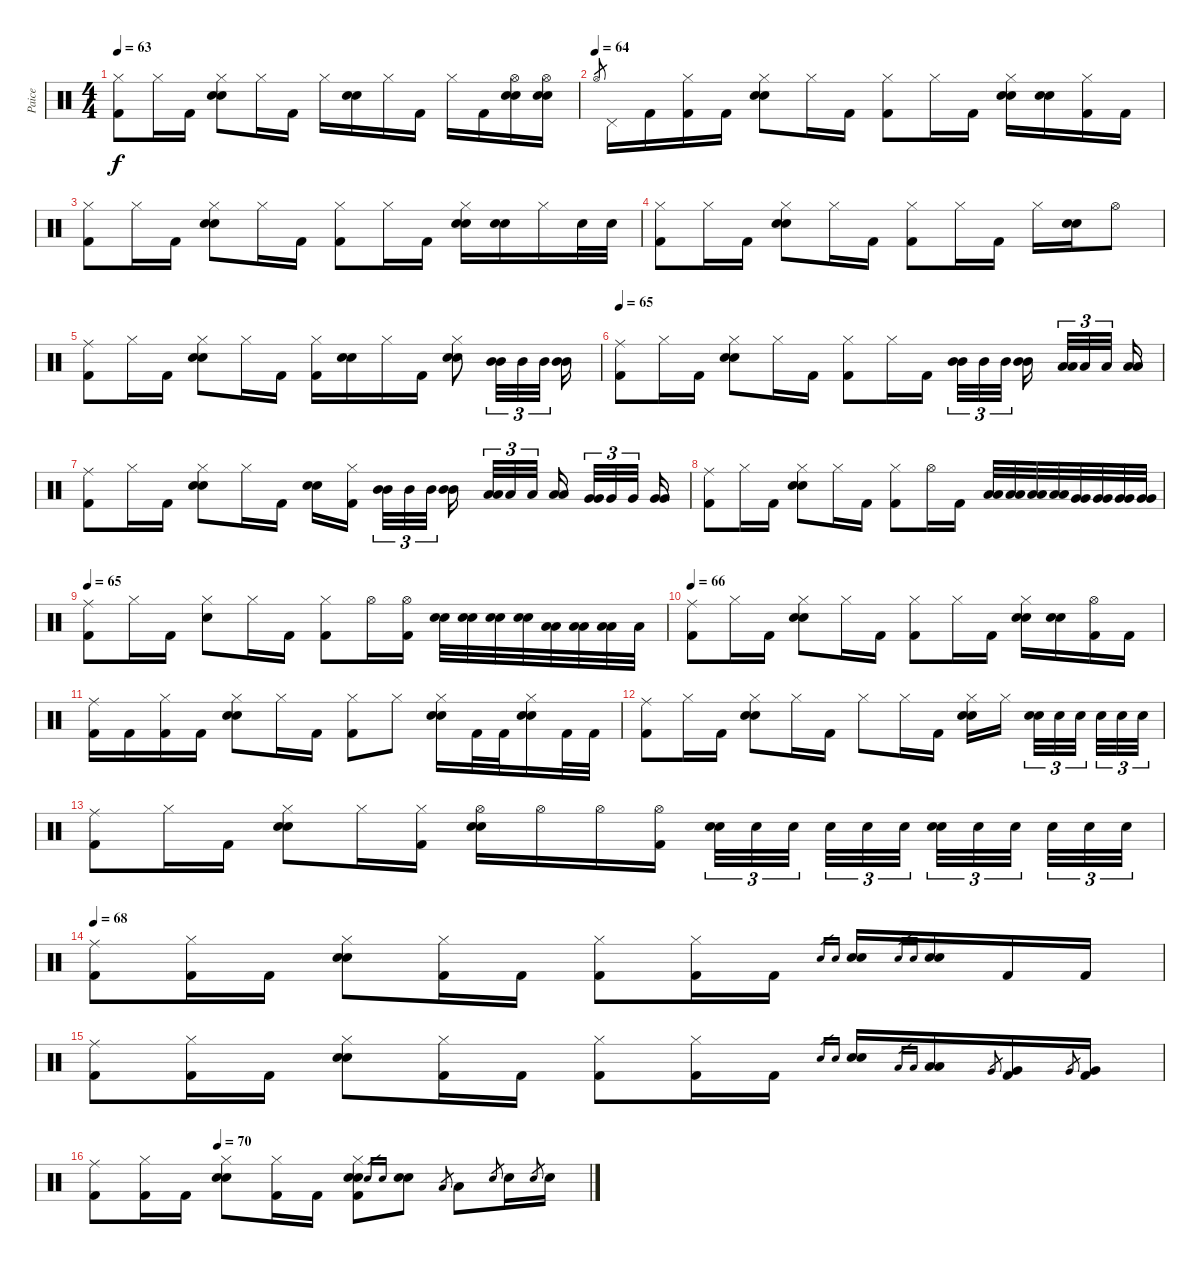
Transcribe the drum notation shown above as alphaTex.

\track ("Paice" "Paice") {instrument percussion}
\staff {score}
\articulation defaults
\ts (4 4)
\tempo 63
\clef neutral
\ks c
("Hi-Hat (closed)" "Kick (hit) 2").8{dy f} "Hi-Hat (closed)".16 "Kick (hit) 2".16 ("Hi-Hat (closed)" "Electric Snare (hit)" "Electric Snare (hit)").8 "Hi-Hat (closed)".16 "Kick (hit) 2".16 "Hi-Hat (closed)".16 ("Electric Snare (hit)" "Electric Snare (hit)").16 "Hi-Hat (closed)".16 "Kick (hit) 2".16 "Hi-Hat (closed)".16 "Kick (hit) 2".16 ("Hi-Hat (open)" "Electric Snare (hit)" "Electric Snare (hit)").16 ("Hi-Hat (open)" "Electric Snare (hit)" "Electric Snare (hit)").16 |
\tempo (64)
"Hi-Hat (open)".8{gr} "Pedal Hi-Hat (hit)".16 "Kick (hit) 2".16 ("Hi-Hat (closed)" "Kick (hit) 2").16 "Kick (hit) 2".16 ("Hi-Hat (closed)" "Electric Snare (hit)" "Electric Snare (hit)").8 "Hi-Hat (closed)".16 "Kick (hit) 2".16 ("Hi-Hat (closed)" "Kick (hit) 2").8 "Hi-Hat (closed)".16 "Kick (hit) 2".16 ("Hi-Hat (closed)" "Electric Snare (hit)" "Electric Snare (hit)").16 ("Electric Snare (hit)" "Electric Snare (hit)").16 ("Hi-Hat (closed)" "Kick (hit) 2").16 "Kick (hit) 2".16 |
("Hi-Hat (closed)" "Kick (hit) 2").8 "Hi-Hat (closed)".16 "Kick (hit) 2".16 ("Hi-Hat (closed)" "Electric Snare (hit)" "Electric Snare (hit)").8 "Hi-Hat (closed)".16 "Kick (hit) 2".16 ("Hi-Hat (closed)" "Kick (hit) 2").8 "Hi-Hat (closed)".16 "Kick (hit) 2".16 ("Hi-Hat (closed)" "Electric Snare (hit)" "Electric Snare (hit)").16 ("Electric Snare (hit)" "Electric Snare (hit)").16 "Hi-Hat (closed)".16 "Electric Snare (hit)".32 "Electric Snare (hit)".32 |
("Hi-Hat (closed)" "Kick (hit) 2").8 "Hi-Hat (closed)".16 "Kick (hit) 2".16 ("Hi-Hat (closed)" "Electric Snare (hit)" "Electric Snare (hit)").8 "Hi-Hat (closed)".16 "Kick (hit) 2".16 ("Hi-Hat (closed)" "Kick (hit) 2").8 "Hi-Hat (closed)".16 "Kick (hit) 2".16 "Hi-Hat (closed)".16 ("Electric Snare (hit)" "Electric Snare (hit)").16 "Hi-Hat (open)".8 |
("Ride (middle)" "Kick (hit) 2").8 "Hi-Hat (closed)".16 "Kick (hit) 2".16 ("Hi-Hat (closed)" "Electric Snare (hit)" "Electric Snare (hit)").8 "Hi-Hat (closed)".16 "Kick (hit) 2".16 ("Hi-Hat (closed)" "Kick (hit) 2").16 ("Electric Snare (hit)" "Electric Snare (hit)").16 "Hi-Hat (closed)".16 "Kick (hit) 2".16 ("Hi-Hat (closed)" "Electric Snare (hit)" "Electric Snare (hit)").8 ("Mid Tom (hit)" "Mid Tom (hit)").32{tu (3 2)} "Mid Tom (hit)".32{tu (3 2)} "Mid Tom (hit)".32{tu (3 2) beam splitsecondary} ("Mid Tom (hit)" "Mid Tom (hit)").16 |
\tempo 65
("Ride (middle)" "Kick (hit) 2").8 "Hi-Hat (closed)".16 "Kick (hit) 2".16 ("Hi-Hat (closed)" "Electric Snare (hit)" "Electric Snare (hit)").8 "Hi-Hat (closed)".16 "Kick (hit) 2".16 ("Hi-Hat (closed)" "Kick (hit) 2").8 "Hi-Hat (closed)".16 "Kick (hit) 2".16 ("Mid Tom (hit)" "Mid Tom (hit)").32{tu (3 2)} "Mid Tom (hit)".32{tu (3 2)} "Mid Tom (hit)".32{tu (3 2) beam splitsecondary} ("Mid Tom (hit)" "Mid Tom (hit)").16{beam splitsecondary} ("Low Tom (hit)" "Low Tom (hit)").32{tu (3 2)} "Low Tom (hit)".32{tu (3 2)} "Low Tom (hit)".32{tu (3 2) beam splitsecondary} ("Low Tom (hit)" "Low Tom (hit)").16 |
("Ride (middle)" "Kick (hit) 2").8 "Hi-Hat (closed)".16 "Kick (hit) 2".16 ("Hi-Hat (closed)" "Electric Snare (hit)" "Electric Snare (hit)").8 "Hi-Hat (closed)".16 "Kick (hit) 2".16 ("Electric Snare (hit)" "Electric Snare (hit)").16 ("Hi-Hat (closed)" "Kick (hit) 2").16{beam splitsecondary} ("Mid Tom (hit)" "Mid Tom (hit)").32{tu (3 2)} "Mid Tom (hit)".32{tu (3 2)} "Mid Tom (hit)".32{tu (3 2) beam splitsecondary} ("Mid Tom (hit)" "Mid Tom (hit)").16 ("Low Tom (hit)" "Low Tom (hit)").32{tu (3 2)} "Low Tom (hit)".32{tu (3 2)} "Low Tom (hit)".32{tu (3 2) beam splitsecondary} ("Low Tom (hit)" "Low Tom (hit)").16{beam splitsecondary} ("Very Low Tom (hit)" "Very Low Tom (hit)").32{tu (3 2)} "Very Low Tom (hit)".32{tu (3 2)} "Very Low Tom (hit)".32{tu (3 2) beam splitsecondary} ("Very Low Tom (hit)" "Very Low Tom (hit)").16 |
("Ride (middle)" "Kick (hit) 2").8 "Hi-Hat (closed)".16 "Kick (hit) 2".16 ("Hi-Hat (closed)" "Electric Snare (hit)" "Electric Snare (hit)").8 "Hi-Hat (closed)".16 "Kick (hit) 2".16 ("Hi-Hat (closed)" "Kick (hit) 2").8 "Hi-Hat (open)".16 "Kick (hit) 2".16 ("Low Tom (hit)" "Low Tom (hit)").32 ("Low Tom (hit)" "Low Tom (hit)").32 ("Low Tom (hit)" "Low Tom (hit)").32 ("Low Tom (hit)" "Low Tom (hit)").32 ("Very Low Tom (hit)" "Very Low Tom (hit)").32 ("Very Low Tom (hit)" "Very Low Tom (hit)").32 ("Very Low Tom (hit)" "Very Low Tom (hit)").32 ("Very Low Tom (hit)" "Very Low Tom (hit)").32 |
\tempo 65
("Ride (middle)" "Kick (hit) 2").8 "Hi-Hat (closed)".16 "Kick (hit) 2".16 ("Hi-Hat (closed)" "Snare (hit) 2").8 "Hi-Hat (closed)".16 "Kick (hit) 2".16 ("Hi-Hat (closed)" "Kick (hit) 2").8 "Hi-Hat (open)".16 ("Hi-Hat (open)" "Kick (hit) 2").16 ("Electric Snare (hit)" "Electric Snare (hit)").32 ("Electric Snare (hit)" "Electric Snare (hit)").32 ("Electric Snare (hit)" "Electric Snare (hit)").32 ("Electric Snare (hit)" "Electric Snare (hit)").32 ("Low Tom (hit)" "Low Tom (hit)").32 ("Low Tom (hit)" "Low Tom (hit)").32 ("Low Tom (hit)" "Low Tom (hit)").32 "Low Tom (hit)".32 |
\tempo 66
("Ride (middle)" "Kick (hit) 2").8 "Hi-Hat (closed)".16 "Kick (hit) 2".16 ("Hi-Hat (closed)" "Electric Snare (hit)" "Electric Snare (hit)").8 "Hi-Hat (closed)".16 "Kick (hit) 2".16 ("Hi-Hat (closed)" "Kick (hit) 2").8 "Hi-Hat (closed)".16 "Kick (hit) 2".16 ("Hi-Hat (closed)" "Electric Snare (hit)" "Electric Snare (hit)").16 ("Electric Snare (hit)" "Electric Snare (hit)").16 ("Hi-Hat (open)" "Kick (hit) 2").16 "Kick (hit) 2".16 |
("Ride (middle)" "Kick (hit) 2").16 "Kick (hit) 2".16 ("Hi-Hat (closed)" "Kick (hit) 2").16 "Kick (hit) 2".16 ("Hi-Hat (closed)" "Electric Snare (hit)" "Electric Snare (hit)").8 "Hi-Hat (closed)".16 "Kick (hit) 2".16 ("Hi-Hat (closed)" "Kick (hit) 2").8 "Hi-Hat (closed)".8 ("Hi-Hat (closed)" "Electric Snare (hit)" "Electric Snare (hit)").16 "Kick (hit) 2".32 "Kick (hit) 2".32 ("Hi-Hat (closed)" "Electric Snare (hit)" "Electric Snare (hit)").16 "Kick (hit) 2".32 "Kick (hit) 2".32 |
("Ride (middle)" "Kick (hit) 2").8 "Hi-Hat (closed)".16 "Kick (hit) 2".16 ("Hi-Hat (closed)" "Electric Snare (hit)" "Electric Snare (hit)").8 "Hi-Hat (closed)".16 "Kick (hit) 2".16 "Hi-Hat (closed)".8 "Hi-Hat (closed)".16 "Kick (hit) 2".16 ("Hi-Hat (closed)" "Electric Snare (hit)" "Electric Snare (hit)").16 "Hi-Hat (closed)".16{beam splitsecondary} ("Electric Snare (hit)" "Electric Snare (hit)").32{tu (3 2)} "Electric Snare (hit)".32{tu (3 2)} "Electric Snare (hit)".32{tu (3 2) beam splitsecondary} "Electric Snare (hit)".32{tu (3 2)} "Electric Snare (hit)".32{tu (3 2)} "Electric Snare (hit)".32{tu (3 2)} |
("Ride (middle)" "Kick (hit) 2").8 "Hi-Hat (closed)".16 "Kick (hit) 2".16 ("Hi-Hat (closed)" "Electric Snare (hit)" "Electric Snare (hit)").8 "Hi-Hat (closed)".16 ("Hi-Hat (closed)" "Kick (hit) 2").16 ("Hi-Hat (open)" "Electric Snare (hit)" "Electric Snare (hit)").16 "Hi-Hat (open)".16 "Hi-Hat (open)".16 ("Hi-Hat (open)" "Kick (hit) 2").16 ("Electric Snare (hit)" "Electric Snare (hit)").32{tu (3 2)} "Electric Snare (hit)".32{tu (3 2)} "Electric Snare (hit)".32{tu (3 2) beam splitsecondary} "Electric Snare (hit)".32{tu (3 2)} "Electric Snare (hit)".32{tu (3 2)} "Electric Snare (hit)".32{tu (3 2) beam splitsecondary} ("Electric Snare (hit)" "Electric Snare (hit)").32{tu (3 2)} "Electric Snare (hit)".32{tu (3 2)} "Electric Snare (hit)".32{tu (3 2) beam splitsecondary} "Electric Snare (hit)".32{tu (3 2)} "Electric Snare (hit)".32{tu (3 2)} "Electric Snare (hit)".32{tu (3 2)} |
\tempo 68
("Ride (middle)" "Kick (hit) 2").8 ("Hi-Hat (closed)" "Kick (hit) 2").16 "Kick (hit) 2".16 ("Hi-Hat (closed)" "Electric Snare (hit)" "Electric Snare (hit)").8 ("Hi-Hat (closed)" "Kick (hit) 2").16 "Kick (hit) 2".16 ("Hi-Hat (closed)" "Kick (hit) 2").8 ("Hi-Hat (closed)" "Kick (hit) 2").16 "Kick (hit) 2".16 "Electric Snare (hit)".16{gr} "Electric Snare (hit)".16{gr} ("Electric Snare (hit)" "Electric Snare (hit)").16 "Electric Snare (hit)".16{gr} "Electric Snare (hit)".16{gr} ("Electric Snare (hit)" "Electric Snare (hit)").16 "Kick (hit) 2".16 "Kick (hit) 2".16 |
("Ride (middle)" "Kick (hit) 2").8 ("Hi-Hat (closed)" "Kick (hit) 2").16 "Kick (hit) 2".16 ("Hi-Hat (closed)" "Electric Snare (hit)" "Electric Snare (hit)").8 ("Hi-Hat (closed)" "Kick (hit) 2").16 "Kick (hit) 2".16 ("Hi-Hat (closed)" "Kick (hit) 2").8 ("Hi-Hat (closed)" "Kick (hit) 2").16 "Kick (hit) 2".16 "Electric Snare (hit)".16{gr} "Electric Snare (hit)".16{gr} ("Electric Snare (hit)" "Electric Snare (hit)").16 "Low Tom (hit)".16{gr} "Low Tom (hit)".16{gr} ("Low Tom (hit)" "Low Tom (hit)").16 "Very Low Tom (hit)".8{gr} ("Very Low Tom (hit)" "Kick (hit) 2").16 "Very Low Tom (hit)".8{gr} ("Very Low Tom (hit)" "Kick (hit) 2").16 |
\tempo (70 0.25)
("Ride (middle)" "Kick (hit) 2").8 ("Hi-Hat (closed)" "Kick (hit) 2").16 "Kick (hit) 2".16 ("Hi-Hat (closed)" "Electric Snare (hit)" "Electric Snare (hit)").8 ("Hi-Hat (closed)" "Kick (hit) 2").16 "Kick (hit) 2".16 ("Hi-Hat (closed)" "Electric Snare (hit)" "Electric Snare (hit)" "Kick (hit) 2").8 "Electric Snare (hit)".16{gr} "Electric Snare (hit)".16{gr} ("Electric Snare (hit)" "Electric Snare (hit)").8 "Low Tom (hit)".8{gr} "Low Tom (hit)".8 "Electric Snare (hit)".8{gr} "Electric Snare (hit)".16 "Electric Snare (hit)".8{gr} "Electric Snare (hit)".16
